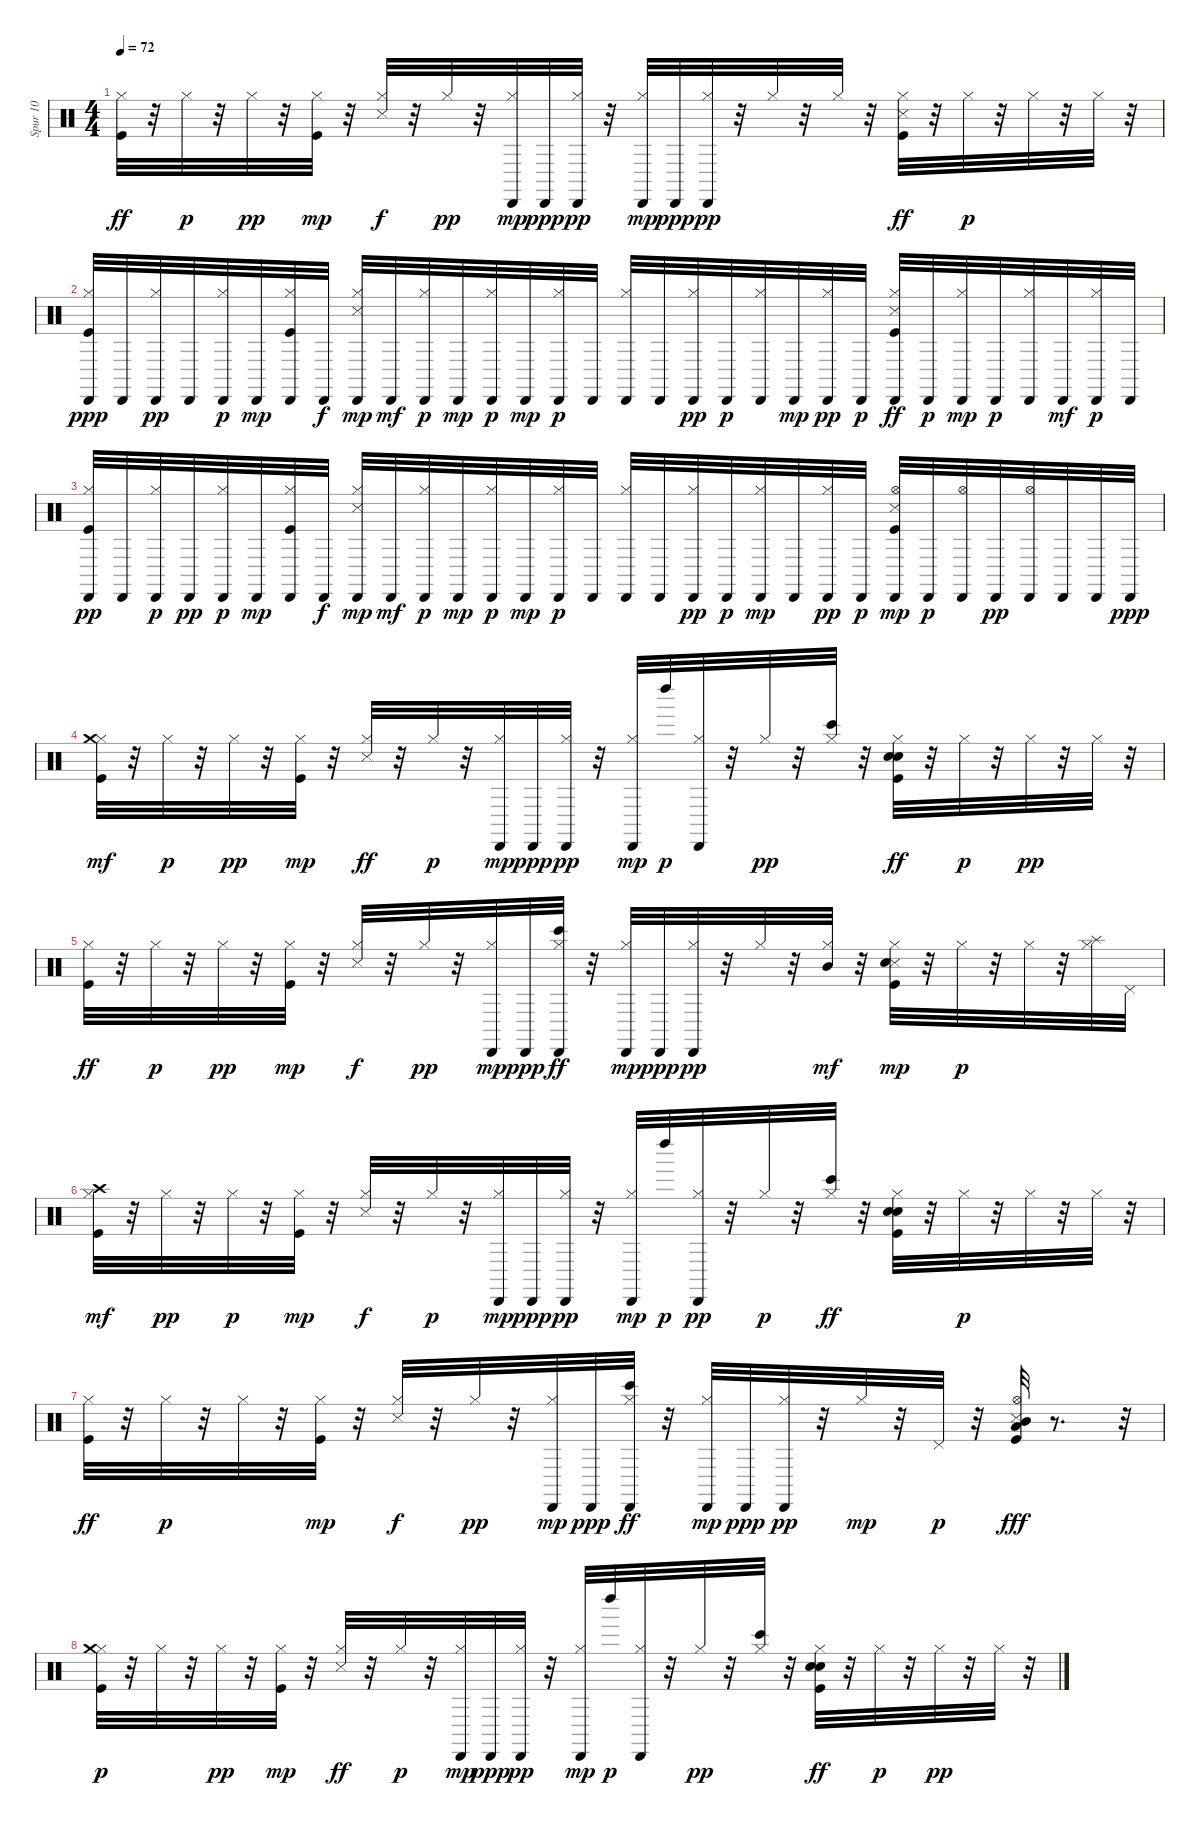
\track ("Spur 10" "Spur 10") {instrument percussion}
\staff {score}
\articulation defaults
\ts (4 4)
\tempo 72
\clef neutral
\ks c
("Kick (hit)" "Hi-Hat (closed)").32{dy ff} r.32 "Hi-Hat (closed)".32{dy p} r.32 "Hi-Hat (closed)".32{dy pp} r.32 ("Hi-Hat (closed)" "Kick (hit)").32{dy mp} r.32 ("Hi-Hat (closed)" "Snare (side stick) 3").32{dy f} r.32 "Hi-Hat (closed)".32{dy pp} r.32 ("Hi-Hat (closed)" "Cabasa (hit)").32{dy mp} "Cabasa (hit)".32{dy ppp} ("Hi-Hat (closed)" "Cabasa (hit)").32{dy pp} r.32 ("Hi-Hat (closed)" "Cabasa (hit)").32{dy mp} "Cabasa (hit)".32{dy ppp} ("Cabasa (hit)" "Hi-Hat (closed)").32{dy pp} r.32 "Hi-Hat (closed)".32 r.32 "Hi-Hat (closed)".32 r.32 ("Snare (side stick) 3" "Kick (hit)" "Hi-Hat (closed)").32{dy ff} r.32 "Hi-Hat (closed)".32{dy p} r.32 "Hi-Hat (closed)".32 r.32 "Hi-Hat (closed)".32 r.32 |
("Kick (hit)" "Hi-Hat (closed)" "Cabasa (hit)").32{dy ppp} "Cabasa (hit)".32 ("Cabasa (hit)" "Hi-Hat (closed)").32{dy pp} "Cabasa (hit)".32 ("Cabasa (hit)" "Hi-Hat (closed)").32{dy p} "Cabasa (hit)".32{dy mp} ("Cabasa (hit)" "Hi-Hat (closed)" "Kick (hit)").32 "Cabasa (hit)".32{dy f} ("Cabasa (hit)" "Hi-Hat (closed)" "Snare (side stick) 3").32{dy mp} "Cabasa (hit)".32{dy mf} ("Hi-Hat (closed)" "Cabasa (hit)").32{dy p} "Cabasa (hit)".32{dy mp} ("Hi-Hat (closed)" "Cabasa (hit)").32{dy p} "Cabasa (hit)".32{dy mp} ("Hi-Hat (closed)" "Cabasa (hit)").32{dy p} "Cabasa (hit)".32 ("Hi-Hat (closed)" "Cabasa (hit)").32 "Cabasa (hit)".32 ("Cabasa (hit)" "Hi-Hat (closed)").32{dy pp} "Cabasa (hit)".32{dy p} ("Cabasa (hit)" "Hi-Hat (closed)").32 "Cabasa (hit)".32{dy mp} ("Cabasa (hit)" "Hi-Hat (closed)").32{dy pp} "Cabasa (hit)".32{dy p} ("Snare (side stick) 3" "Cabasa (hit)" "Kick (hit)" "Hi-Hat (closed)").32{dy ff} "Cabasa (hit)".32{dy p} ("Hi-Hat (closed)" "Cabasa (hit)").32{dy mp} "Cabasa (hit)".32{dy p} ("Hi-Hat (closed)" "Cabasa (hit)").32 "Cabasa (hit)".32{dy mf} ("Cabasa (hit)" "Hi-Hat (closed)").32{dy p} "Cabasa (hit)".32 |
("Kick (hit)" "Hi-Hat (closed)" "Cabasa (hit)").32{dy pp} "Cabasa (hit)".32 ("Cabasa (hit)" "Hi-Hat (closed)").32{dy p} "Cabasa (hit)".32{dy pp} ("Cabasa (hit)" "Hi-Hat (closed)").32{dy p} "Cabasa (hit)".32{dy mp} ("Cabasa (hit)" "Hi-Hat (closed)" "Kick (hit)").32 "Cabasa (hit)".32{dy f} ("Cabasa (hit)" "Hi-Hat (closed)" "Snare (side stick) 3").32{dy mp} "Cabasa (hit)".32{dy mf} ("Hi-Hat (closed)" "Cabasa (hit)").32{dy p} "Cabasa (hit)".32{dy mp} ("Hi-Hat (closed)" "Cabasa (hit)").32{dy p} "Cabasa (hit)".32{dy mp} ("Hi-Hat (closed)" "Cabasa (hit)").32{dy p} "Cabasa (hit)".32 ("Hi-Hat (closed)" "Cabasa (hit)").32 "Cabasa (hit)".32 ("Cabasa (hit)" "Hi-Hat (closed)").32{dy pp} "Cabasa (hit)".32{dy p} ("Cabasa (hit)" "Hi-Hat (closed)").32{dy mp} "Cabasa (hit)".32 ("Cabasa (hit)" "Hi-Hat (closed)").32{dy pp} "Cabasa (hit)".32{dy p} ("Snare (side stick) 3" "Cabasa (hit)" "Kick (hit)" "Hi-Hat (open)").32{dy mp} "Cabasa (hit)".32{dy p} ("Hi-Hat (open)" "Cabasa (hit)").32 "Cabasa (hit)".32{dy pp} ("Hi-Hat (open)" "Cabasa (hit)").32 "Cabasa (hit)".32 "Cabasa (hit)".32 "Cabasa (hit)".32{dy ppp} |
("Kick (hit)" "Hi-Hat (closed)" "Crash medium (hit)").32{dy mf} r.32 "Hi-Hat (closed)".32{dy p} r.32 "Hi-Hat (closed)".32{dy pp} r.32 ("Hi-Hat (closed)" "Kick (hit)").32{dy mp} r.32 ("Hi-Hat (closed)" "Snare (side stick) 3").32{dy ff} r.32 "Hi-Hat (closed)".32{dy p} r.32 ("Hi-Hat (closed)" "Cabasa (hit)").32{dy mp} "Cabasa (hit)".32{dy ppp} ("Hi-Hat (closed)" "Cabasa (hit)").32{dy pp} r.32 ("Cabasa (hit)" "Hi-Hat (closed)").32{dy mp} "Left Maraca (hit)".32{dy p} ("Cabasa (hit)" "Hi-Hat (closed)").32 r.32 "Hi-Hat (closed)".32{dy pp} r.32 ("Bongo High (hit)" "Hi-Hat (closed)").32 r.32 ("Kick (hit)" "Electric Snare (hit)" "Hand Clap (hit)" "Hi-Hat (closed)").32{dy ff} r.32 "Hi-Hat (closed)".32{dy p} r.32 "Hi-Hat (closed)".32{dy pp} r.32 "Hi-Hat (closed)".32 r.32 |
("Kick (hit)" "Hi-Hat (closed)").32{dy ff} r.32 "Hi-Hat (closed)".32{dy p} r.32 "Hi-Hat (closed)".32{dy pp} r.32 ("Hi-Hat (closed)" "Kick (hit)").32{dy mp} r.32 ("Hi-Hat (closed)" "Snare (side stick) 3").32{dy f} r.32 "Hi-Hat (closed)".32{dy pp} r.32 ("Hi-Hat (closed)" "Cabasa (hit)").32{dy mp} "Cabasa (hit)".32{dy ppp} ("Hi-Hat (closed)" "Cabasa (hit)" "Bongo High (hit)").32{dy ff} r.32 ("Hi-Hat (closed)" "Cabasa (hit)").32{dy mp} "Cabasa (hit)".32{dy ppp} ("Cabasa (hit)" "Hi-Hat (closed)").32{dy pp} r.32 "Hi-Hat (closed)".32 r.32 ("Hi-Hat (closed)" "Mid Tom (hit)").32{dy mf} r.32 ("Snare (side stick) 3" "Kick (hit)" "Hi-Hat (closed)" "Electric Snare (hit)").32{dy mp} r.32 "Hi-Hat (closed)".32{dy p} r.32 "Hi-Hat (closed)".32 r.32 ("Splash (hit)" "Hi-Hat (closed)").32 "Pedal Hi-Hat (hit)".32 |
("Kick (hit)" "Hi-Hat (closed)" "Crash high (hit)").32{dy mf} r.32 "Hi-Hat (closed)".32{dy pp} r.32 "Hi-Hat (closed)".32{dy p} r.32 ("Hi-Hat (closed)" "Kick (hit)").32{dy mp} r.32 ("Hi-Hat (closed)" "Snare (side stick) 3").32{dy f} r.32 "Hi-Hat (closed)".32{dy p} r.32 ("Hi-Hat (closed)" "Cabasa (hit)").32{dy mp} "Cabasa (hit)".32{dy ppp} ("Hi-Hat (closed)" "Cabasa (hit)").32{dy pp} r.32 ("Hi-Hat (closed)" "Cabasa (hit)").32{dy mp} "Left Maraca (hit)".32{dy p} ("Cabasa (hit)" "Hi-Hat (closed)").32{dy pp} r.32 "Hi-Hat (closed)".32{dy p} r.32 ("Hi-Hat (closed)" "Bongo High (hit)").32{dy ff} r.32 ("Kick (hit)" "Hi-Hat (closed)" "Electric Snare (hit)" "Hand Clap (hit)").32 r.32 "Hi-Hat (closed)".32{dy p} r.32 "Hi-Hat (closed)".32 r.32 "Hi-Hat (closed)".32 r.32 |
("Kick (hit)" "Hi-Hat (closed)").32{dy ff} r.32 "Hi-Hat (closed)".32{dy p} r.32 "Hi-Hat (closed)".32 r.32 ("Hi-Hat (closed)" "Kick (hit)").32{dy mp} r.32 ("Hi-Hat (closed)" "Snare (side stick) 3").32{dy f} r.32 "Hi-Hat (closed)".32{dy pp} r.32 ("Hi-Hat (closed)" "Cabasa (hit)").32{dy mp} "Cabasa (hit)".32{dy ppp} ("Hi-Hat (closed)" "Cabasa (hit)" "Bongo High (hit)").32{dy ff} r.32 ("Hi-Hat (closed)" "Cabasa (hit)").32{dy mp} "Cabasa (hit)".32{dy ppp} ("Cabasa (hit)" "Hi-Hat (closed)").32{dy pp} r.32 "Hi-Hat (closed)".32{dy mp} r.32 "Pedal Hi-Hat (hit)".32{dy p} r.32 ("Low Floor Tom (hit)" "Snare (side stick) 3" "Kick (hit)" "Hi-Hat (open)" "Mid Tom (hit)").32{dy fff} r.8{d} r.32 |
("Kick (hit)" "Hi-Hat (closed)" "Crash medium (hit)").32{dy p} r.32 "Hi-Hat (closed)".32 r.32 "Hi-Hat (closed)".32{dy pp} r.32 ("Hi-Hat (closed)" "Kick (hit)").32{dy mp} r.32 ("Hi-Hat (closed)" "Snare (side stick) 3").32{dy ff} r.32 "Hi-Hat (closed)".32{dy p} r.32 ("Hi-Hat (closed)" "Cabasa (hit)").32{dy mp} "Cabasa (hit)".32{dy ppp} ("Hi-Hat (closed)" "Cabasa (hit)").32{dy pp} r.32 ("Cabasa (hit)" "Hi-Hat (closed)").32{dy mp} "Left Maraca (hit)".32{dy p} ("Cabasa (hit)" "Hi-Hat (closed)").32 r.32 "Hi-Hat (closed)".32{dy pp} r.32 ("Bongo High (hit)" "Hi-Hat (closed)").32 r.32 ("Kick (hit)" "Electric Snare (hit)" "Hand Clap (hit)" "Hi-Hat (closed)").32{dy ff} r.32 "Hi-Hat (closed)".32{dy p} r.32 "Hi-Hat (closed)".32{dy pp} r.32 "Hi-Hat (closed)".32 r.32
